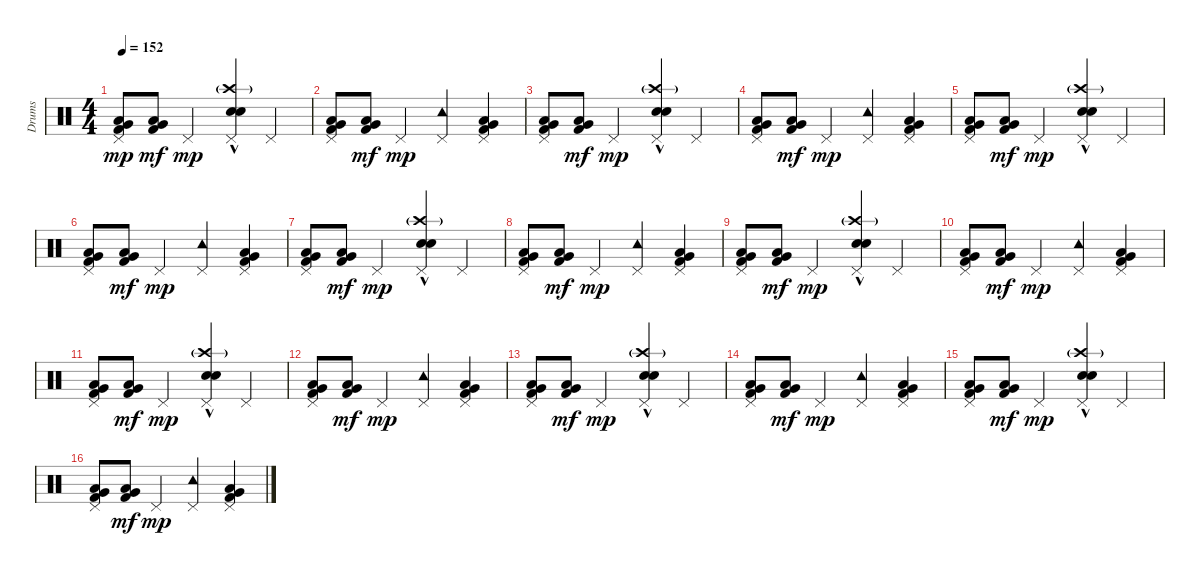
\track ("Drums" "Drums") {instrument percussion}
\staff {score}
\articulation defaults
\ts (4 4)
\tempo 152
\clef neutral
\ks c
("Very Low Tom (hit)" "Low Floor Tom (hit)" "Pedal Hi-Hat (hit)" "Kick (hit) 2").8{dy mp} ("Very Low Tom (hit)" "Low Floor Tom (hit)" "Kick (hit) 2").8{dy mf} "Pedal Hi-Hat (hit)".4{dy mp} ("Crash high (hit)"{g} "Electric Snare (hit)" "Snare (hit) 2"{hac} "Pedal Hi-Hat (hit)").4 "Pedal Hi-Hat (hit)".4 |
("Very Low Tom (hit)" "Low Floor Tom (hit)" "Pedal Hi-Hat (hit)" "Kick (hit) 2").8 ("Very Low Tom (hit)" "Low Floor Tom (hit)" "Kick (hit) 2").8{dy mf} "Pedal Hi-Hat (hit)".4{dy mp} ("Tambourine (hit)" "Pedal Hi-Hat (hit)").4 ("Very Low Tom (hit)" "Low Floor Tom (hit)" "Pedal Hi-Hat (hit)" "Kick (hit) 2").4 |
("Very Low Tom (hit)" "Low Floor Tom (hit)" "Pedal Hi-Hat (hit)" "Kick (hit) 2").8 ("Very Low Tom (hit)" "Low Floor Tom (hit)" "Kick (hit) 2").8{dy mf} "Pedal Hi-Hat (hit)".4{dy mp} ("Crash high (hit)"{g} "Electric Snare (hit)" "Snare (hit) 2"{hac} "Pedal Hi-Hat (hit)").4 "Pedal Hi-Hat (hit)".4 |
("Very Low Tom (hit)" "Low Floor Tom (hit)" "Pedal Hi-Hat (hit)" "Kick (hit) 2").8 ("Very Low Tom (hit)" "Low Floor Tom (hit)" "Kick (hit) 2").8{dy mf} "Pedal Hi-Hat (hit)".4{dy mp} ("Tambourine (hit)" "Pedal Hi-Hat (hit)").4 ("Very Low Tom (hit)" "Low Floor Tom (hit)" "Pedal Hi-Hat (hit)" "Kick (hit) 2").4 |
("Very Low Tom (hit)" "Low Floor Tom (hit)" "Pedal Hi-Hat (hit)" "Kick (hit) 2").8 ("Very Low Tom (hit)" "Low Floor Tom (hit)" "Kick (hit) 2").8{dy mf} "Pedal Hi-Hat (hit)".4{dy mp} ("Crash high (hit)"{g} "Electric Snare (hit)" "Snare (hit) 2"{hac} "Pedal Hi-Hat (hit)").4 "Pedal Hi-Hat (hit)".4 |
("Very Low Tom (hit)" "Low Floor Tom (hit)" "Pedal Hi-Hat (hit)" "Kick (hit) 2").8 ("Very Low Tom (hit)" "Low Floor Tom (hit)" "Kick (hit) 2").8{dy mf} "Pedal Hi-Hat (hit)".4{dy mp} ("Tambourine (hit)" "Pedal Hi-Hat (hit)").4 ("Very Low Tom (hit)" "Low Floor Tom (hit)" "Pedal Hi-Hat (hit)" "Kick (hit) 2").4 |
("Very Low Tom (hit)" "Low Floor Tom (hit)" "Pedal Hi-Hat (hit)" "Kick (hit) 2").8 ("Very Low Tom (hit)" "Low Floor Tom (hit)" "Kick (hit) 2").8{dy mf} "Pedal Hi-Hat (hit)".4{dy mp} ("Crash high (hit)"{g} "Electric Snare (hit)" "Snare (hit) 2"{hac} "Pedal Hi-Hat (hit)").4 "Pedal Hi-Hat (hit)".4 |
("Very Low Tom (hit)" "Low Floor Tom (hit)" "Pedal Hi-Hat (hit)" "Kick (hit) 2").8 ("Very Low Tom (hit)" "Low Floor Tom (hit)" "Kick (hit) 2").8{dy mf} "Pedal Hi-Hat (hit)".4{dy mp} ("Tambourine (hit)" "Pedal Hi-Hat (hit)").4 ("Very Low Tom (hit)" "Low Floor Tom (hit)" "Pedal Hi-Hat (hit)" "Kick (hit) 2").4 |
("Very Low Tom (hit)" "Low Floor Tom (hit)" "Pedal Hi-Hat (hit)" "Kick (hit) 2").8 ("Very Low Tom (hit)" "Low Floor Tom (hit)" "Kick (hit) 2").8{dy mf} "Pedal Hi-Hat (hit)".4{dy mp} ("Crash high (hit)"{g} "Electric Snare (hit)" "Snare (hit) 2"{hac} "Pedal Hi-Hat (hit)").4 "Pedal Hi-Hat (hit)".4 |
("Very Low Tom (hit)" "Low Floor Tom (hit)" "Pedal Hi-Hat (hit)" "Kick (hit) 2").8 ("Very Low Tom (hit)" "Low Floor Tom (hit)" "Kick (hit) 2").8{dy mf} "Pedal Hi-Hat (hit)".4{dy mp} ("Tambourine (hit)" "Pedal Hi-Hat (hit)").4 ("Very Low Tom (hit)" "Low Floor Tom (hit)" "Pedal Hi-Hat (hit)" "Kick (hit) 2").4 |
("Very Low Tom (hit)" "Low Floor Tom (hit)" "Pedal Hi-Hat (hit)" "Kick (hit) 2").8 ("Very Low Tom (hit)" "Low Floor Tom (hit)" "Kick (hit) 2").8{dy mf} "Pedal Hi-Hat (hit)".4{dy mp} ("Crash high (hit)"{g} "Electric Snare (hit)" "Snare (hit) 2"{hac} "Pedal Hi-Hat (hit)").4 "Pedal Hi-Hat (hit)".4 |
("Very Low Tom (hit)" "Low Floor Tom (hit)" "Pedal Hi-Hat (hit)" "Kick (hit) 2").8 ("Very Low Tom (hit)" "Low Floor Tom (hit)" "Kick (hit) 2").8{dy mf} "Pedal Hi-Hat (hit)".4{dy mp} ("Tambourine (hit)" "Pedal Hi-Hat (hit)").4 ("Very Low Tom (hit)" "Low Floor Tom (hit)" "Pedal Hi-Hat (hit)" "Kick (hit) 2").4 |
("Very Low Tom (hit)" "Low Floor Tom (hit)" "Pedal Hi-Hat (hit)" "Kick (hit) 2").8 ("Very Low Tom (hit)" "Low Floor Tom (hit)" "Kick (hit) 2").8{dy mf} "Pedal Hi-Hat (hit)".4{dy mp} ("Crash high (hit)"{g} "Electric Snare (hit)" "Snare (hit) 2"{hac} "Pedal Hi-Hat (hit)").4 "Pedal Hi-Hat (hit)".4 |
("Very Low Tom (hit)" "Low Floor Tom (hit)" "Pedal Hi-Hat (hit)" "Kick (hit) 2").8 ("Very Low Tom (hit)" "Low Floor Tom (hit)" "Kick (hit) 2").8{dy mf} "Pedal Hi-Hat (hit)".4{dy mp} ("Tambourine (hit)" "Pedal Hi-Hat (hit)").4 ("Very Low Tom (hit)" "Low Floor Tom (hit)" "Pedal Hi-Hat (hit)" "Kick (hit) 2").4 |
("Very Low Tom (hit)" "Low Floor Tom (hit)" "Pedal Hi-Hat (hit)" "Kick (hit) 2").8 ("Very Low Tom (hit)" "Low Floor Tom (hit)" "Kick (hit) 2").8{dy mf} "Pedal Hi-Hat (hit)".4{dy mp} ("Crash high (hit)"{g} "Electric Snare (hit)" "Snare (hit) 2"{hac} "Pedal Hi-Hat (hit)").4 "Pedal Hi-Hat (hit)".4 |
("Very Low Tom (hit)" "Low Floor Tom (hit)" "Pedal Hi-Hat (hit)" "Kick (hit) 2").8 ("Very Low Tom (hit)" "Low Floor Tom (hit)" "Kick (hit) 2").8{dy mf} "Pedal Hi-Hat (hit)".4{dy mp} ("Tambourine (hit)" "Pedal Hi-Hat (hit)").4 ("Very Low Tom (hit)" "Low Floor Tom (hit)" "Pedal Hi-Hat (hit)" "Kick (hit) 2").4
